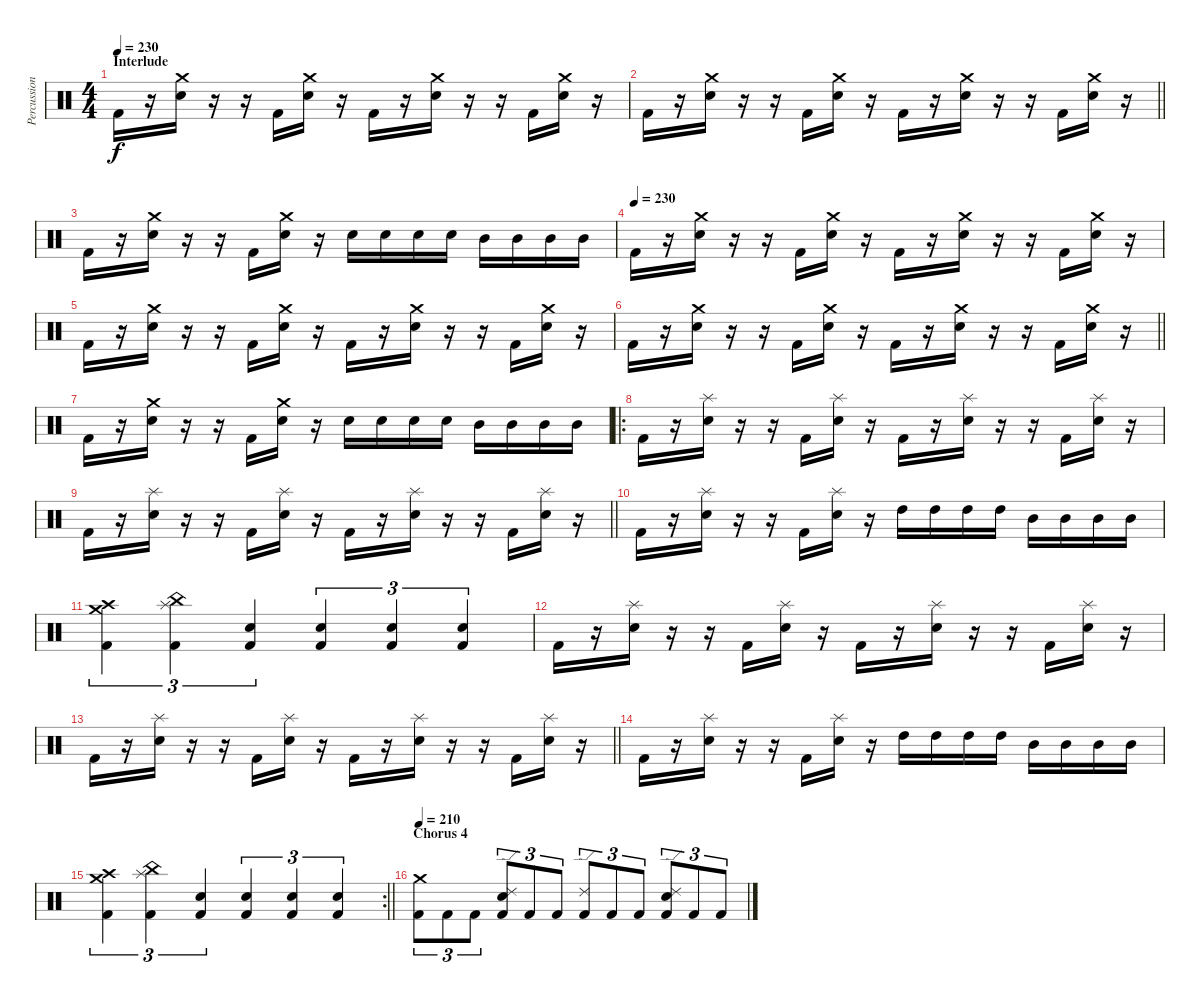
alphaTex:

\track ("Percussions" "Percussion") {instrument percussion}
\staff {score}
\articulation defaults
\ts (4 4)
\section ("" "Interlude")
\tempo 230
\clef neutral
\ks c "Kick (hit) 2".16{dy f}
r.16 ("Crash medium (hit)" "Electric Snare (hit)").16 r.16 r.16 "Kick (hit) 2".16 ("Crash medium (hit)" "Electric Snare (hit)").16 r.16 "Kick (hit) 2".16 r.16 ("Crash medium (hit)" "Electric Snare (hit)").16 r.16 r.16 "Kick (hit) 2".16 ("Crash medium (hit)" "Electric Snare (hit)").16 r.16 |
\barLineRight lightlight "Kick (hit) 2".16
r.16 ("Crash medium (hit)" "Electric Snare (hit)").16 r.16 r.16 "Kick (hit) 2".16 ("Crash medium (hit)" "Electric Snare (hit)").16 r.16 "Kick (hit) 2".16 r.16 ("Crash medium (hit)" "Electric Snare (hit)").16 r.16 r.16 "Kick (hit) 2".16 ("Crash medium (hit)" "Electric Snare (hit)").16 r.16 |
"Kick (hit) 2".16 r.16 ("Crash medium (hit)" "Electric Snare (hit)").16 r.16 r.16 "Kick (hit) 2".16 ("Crash medium (hit)" "Electric Snare (hit)").16 r.16 "Electric Snare (hit)".16 "Electric Snare (hit)".16 "Electric Snare (hit)".16 "Electric Snare (hit)".16 "Mid Tom (hit)".16 "Mid Tom (hit)".16 "Mid Tom (hit)".16 "Mid Tom (hit)".16 |
\tempo (230)
"Kick (hit) 2".16 r.16 ("Crash medium (hit)" "Electric Snare (hit)").16 r.16 r.16 "Kick (hit) 2".16 ("Crash medium (hit)" "Electric Snare (hit)").16 r.16 "Kick (hit) 2".16 r.16 ("Crash medium (hit)" "Electric Snare (hit)").16 r.16 r.16 "Kick (hit) 2".16 ("Crash medium (hit)" "Electric Snare (hit)").16 r.16 |
"Kick (hit) 2".16 r.16 ("Crash medium (hit)" "Electric Snare (hit)").16 r.16 r.16 "Kick (hit) 2".16 ("Crash medium (hit)" "Electric Snare (hit)").16 r.16 "Kick (hit) 2".16 r.16 ("Crash medium (hit)" "Electric Snare (hit)").16 r.16 r.16 "Kick (hit) 2".16 ("Crash medium (hit)" "Electric Snare (hit)").16 r.16 |
\barLineRight lightlight "Kick (hit) 2".16
r.16 ("Crash medium (hit)" "Electric Snare (hit)").16 r.16 r.16 "Kick (hit) 2".16 ("Crash medium (hit)" "Electric Snare (hit)").16 r.16 "Kick (hit) 2".16 r.16 ("Crash medium (hit)" "Electric Snare (hit)").16 r.16 r.16 "Kick (hit) 2".16 ("Crash medium (hit)" "Electric Snare (hit)").16 r.16 |
"Kick (hit) 2".16 r.16 ("Crash medium (hit)" "Electric Snare (hit)").16 r.16 r.16 "Kick (hit) 2".16 ("Crash medium (hit)" "Electric Snare (hit)").16 r.16 "Electric Snare (hit)".16 "Electric Snare (hit)".16 "Electric Snare (hit)".16 "Electric Snare (hit)".16 "Mid Tom (hit)".16 "Mid Tom (hit)".16 "Mid Tom (hit)".16 "Mid Tom (hit)".16 |
\ro "Kick (hit) 2".16
r.16 ("Splash (hit)" "Electric Snare (hit)").16 r.16 r.16 "Kick (hit) 2".16 ("Splash (hit)" "Electric Snare (hit)").16 r.16 "Kick (hit) 2".16 r.16 ("Splash (hit)" "Electric Snare (hit)").16 r.16 r.16 "Kick (hit) 2".16 ("Splash (hit)" "Electric Snare (hit)").16 r.16 |
\barLineRight lightlight "Kick (hit) 2".16
r.16 ("Splash (hit)" "Electric Snare (hit)").16 r.16 r.16 "Kick (hit) 2".16 ("Splash (hit)" "Electric Snare (hit)").16 r.16 "Kick (hit) 2".16 r.16 ("Splash (hit)" "Electric Snare (hit)").16 r.16 r.16 "Kick (hit) 2".16 ("Splash (hit)" "Electric Snare (hit)").16 r.16 |
"Kick (hit) 2".16 r.16 ("Splash (hit)" "Electric Snare (hit)").16 r.16 r.16 "Kick (hit) 2".16 ("Splash (hit)" "Electric Snare (hit)").16 r.16 "High Tom (hit)".16 "High Tom (hit)".16 "High Tom (hit)".16 "High Tom (hit)".16 "Mid Tom (hit)".16 "Mid Tom (hit)".16 "Mid Tom (hit)".16 "Mid Tom (hit)".16 |
("Crash high (hit)" "Crash medium (hit)" "Kick (hit) 2").4{tu (3 2)} ("Splash (hit)" "China (hit)" "Kick (hit) 2").4{tu (3 2)} ("Electric Snare (hit)" "Kick (hit) 2").4{tu (3 2)} ("Electric Snare (hit)" "Kick (hit) 2").4{tu (3 2)} ("Electric Snare (hit)" "Kick (hit) 2").4{tu (3 2)} ("Electric Snare (hit)" "Kick (hit) 2").4{tu (3 2)} |
"Kick (hit) 2".16 r.16 ("Splash (hit)" "Electric Snare (hit)").16 r.16 r.16 "Kick (hit) 2".16 ("Splash (hit)" "Electric Snare (hit)").16 r.16 "Kick (hit) 2".16 r.16 ("Splash (hit)" "Electric Snare (hit)").16 r.16 r.16 "Kick (hit) 2".16 ("Splash (hit)" "Electric Snare (hit)").16 r.16 |
\barLineRight lightlight "Kick (hit) 2".16
r.16 ("Splash (hit)" "Electric Snare (hit)").16 r.16 r.16 "Kick (hit) 2".16 ("Splash (hit)" "Electric Snare (hit)").16 r.16 "Kick (hit) 2".16 r.16 ("Splash (hit)" "Electric Snare (hit)").16 r.16 r.16 "Kick (hit) 2".16 ("Splash (hit)" "Electric Snare (hit)").16 r.16 |
"Kick (hit) 2".16 r.16 ("Splash (hit)" "Electric Snare (hit)").16 r.16 r.16 "Kick (hit) 2".16 ("Splash (hit)" "Electric Snare (hit)").16 r.16 "High Tom (hit)".16 "High Tom (hit)".16 "High Tom (hit)".16 "High Tom (hit)".16 "Mid Tom (hit)".16 "Mid Tom (hit)".16 "Mid Tom (hit)".16 "Mid Tom (hit)".16 |
\rc 2
\barLineRight lightlight
("Crash high (hit)" "Crash medium (hit)" "Kick (hit) 2").4{tu (3 2)} ("Splash (hit)" "China (hit)" "Kick (hit) 2").4{tu (3 2)} ("Electric Snare (hit)" "Kick (hit) 2").4{tu (3 2)} ("Electric Snare (hit)" "Kick (hit) 2").4{tu (3 2)} ("Electric Snare (hit)" "Kick (hit) 2").4{tu (3 2)} ("Electric Snare (hit)" "Kick (hit) 2").4{tu (3 2)} |
\section ("" "Chorus 4")
\tempo 210
("Crash medium (hit)" "Kick (hit) 2").8{tu (3 2)} "Kick (hit) 2".8{tu (3 2)} "Kick (hit) 2".8{tu (3 2)} ("Ride (edge) 2" "Electric Snare (hit)" "Kick (hit) 2").8{tu (3 2)} "Kick (hit) 2".8{tu (3 2)} "Kick (hit) 2".8{tu (3 2)} ("Ride (edge) 2" "Kick (hit) 2").8{tu (3 2)} "Kick (hit) 2".8{tu (3 2)} "Kick (hit) 2".8{tu (3 2)} ("Ride (edge) 2" "Electric Snare (hit)" "Kick (hit) 2").8{tu (3 2)} "Kick (hit) 2".8{tu (3 2)} "Kick (hit) 2".8{tu (3 2)}
